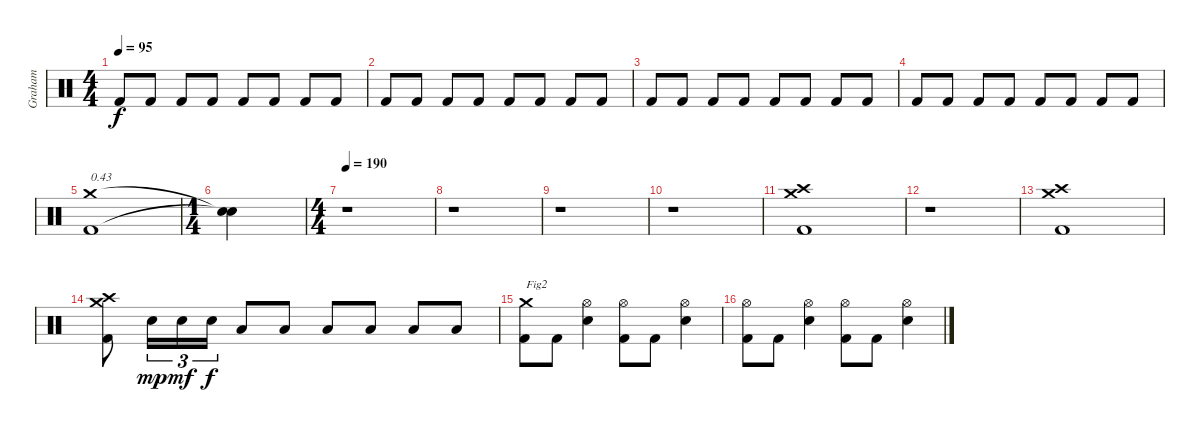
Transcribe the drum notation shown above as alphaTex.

\track ("Graham" "Graham") {instrument percussion}
\staff {score}
\articulation defaults
\ts (4 4)
\tempo 95
\clef neutral
\ks c "Kick (hit) 2".8{dy f} "Kick (hit) 2".8 "Kick (hit) 2".8 "Kick (hit) 2".8 "Kick (hit) 2".8 "Kick (hit) 2".8 "Kick (hit) 2".8 "Kick (hit) 2".8
|
"Kick (hit) 2".8 "Kick (hit) 2".8 "Kick (hit) 2".8 "Kick (hit) 2".8 "Kick (hit) 2".8 "Kick (hit) 2".8 "Kick (hit) 2".8 "Kick (hit) 2".8 |
"Kick (hit) 2".8 "Kick (hit) 2".8 "Kick (hit) 2".8 "Kick (hit) 2".8 "Kick (hit) 2".8 "Kick (hit) 2".8 "Kick (hit) 2".8 "Kick (hit) 2".8 |
"Kick (hit) 2".8 "Kick (hit) 2".8 "Kick (hit) 2".8 "Kick (hit) 2".8 "Kick (hit) 2".8 "Kick (hit) 2".8 "Kick (hit) 2".8 "Kick (hit) 2".8 |
("Kick (hit) 2" "Crash medium (hit)").1{txt "0.43"} |
\ts (1 4)
("Snare (hit)"{t} "Snare (hit)"{t}).4 |
\ts (4 4)
\tempo 190
r.1 |
r.1 |
r.1 |
r.1 |
("Kick (hit) 2" "Crash high (hit)" "Crash medium (hit)").1 |
r.1 |
("Kick (hit) 2" "Crash high (hit)" "Crash medium (hit)").1 |
("Kick (hit) 2" "Crash high (hit)" "Crash medium (hit)").8 "Electric Snare (hit)".16{tu (3 2) dy mp} "Electric Snare (hit)".16{tu (3 2) dy mf} "Electric Snare (hit)".16{tu (3 2) dy f} "Low Tom (hit)".8 "Low Tom (hit)".8 "Low Tom (hit)".8 "Low Tom (hit)".8 "Low Tom (hit)".8 "Low Tom (hit)".8 |
("Kick (hit) 2" "Crash medium (hit)").8{txt "Fig2"} "Kick (hit) 2".8 ("Electric Snare (hit)" "Hi-Hat (open)").4 ("Kick (hit) 2" "Hi-Hat (open)").8 "Kick (hit) 2".8 ("Electric Snare (hit)" "Hi-Hat (open)").4 |
("Kick (hit) 2" "Hi-Hat (open)").8 "Kick (hit) 2".8 ("Electric Snare (hit)" "Hi-Hat (open)").4 ("Kick (hit) 2" "Hi-Hat (open)").8 "Kick (hit) 2".8 ("Electric Snare (hit)" "Hi-Hat (open)").4
